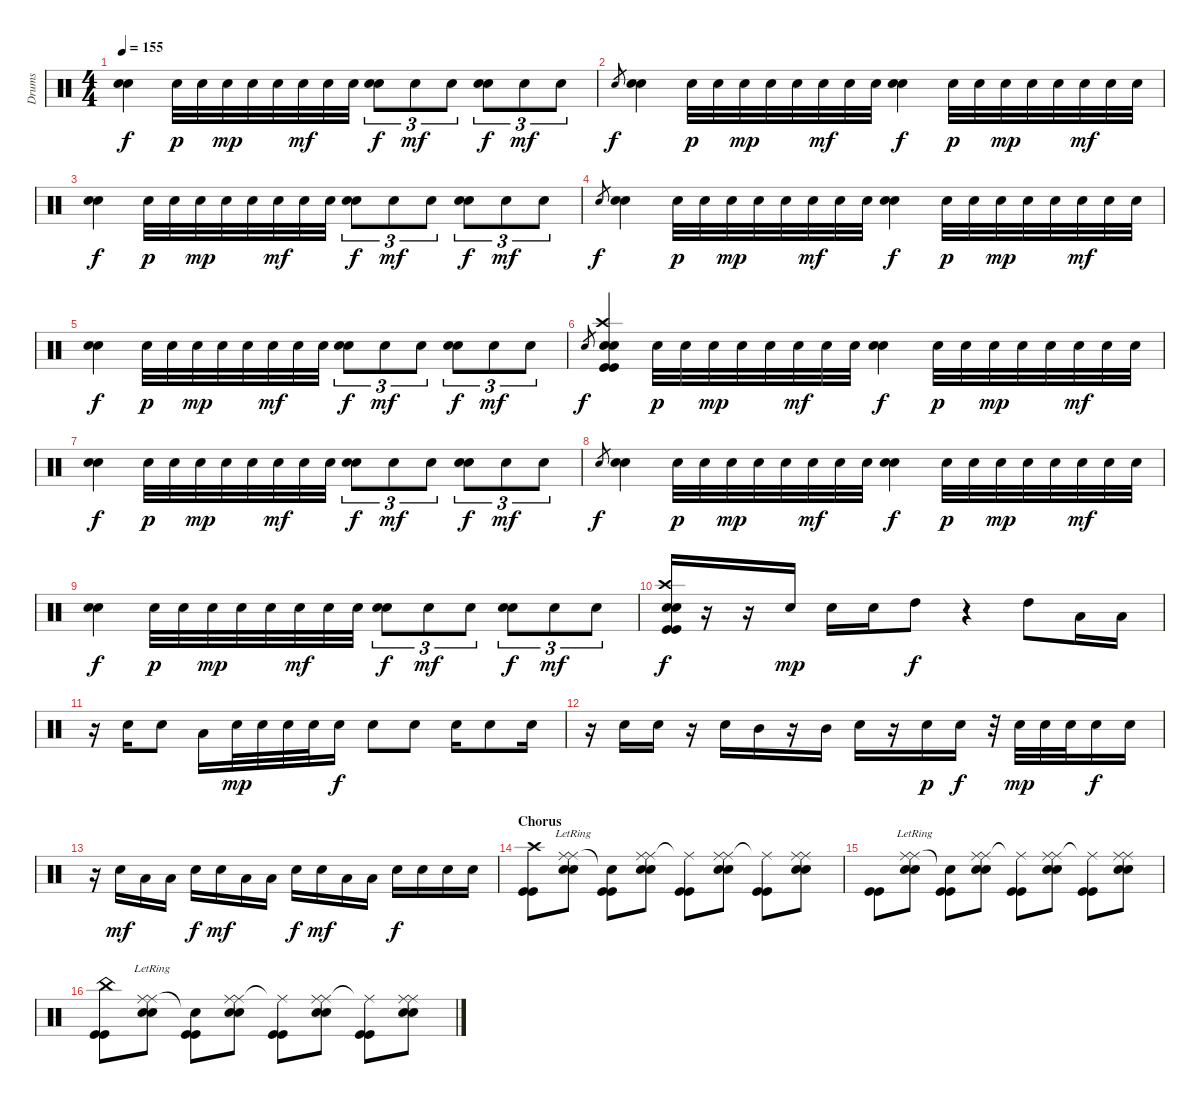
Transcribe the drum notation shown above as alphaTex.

\track ("Drums" "Drums") {instrument percussion}
\staff {score}
\articulation defaults
\ts (4 4)
\tempo 155
\clef neutral
\ks c
("Snare (hit) 2" "Snare (hit) 2").4{dy f} "Snare (hit) 2".32{dy p} "Snare (hit) 2".32 "Snare (hit) 2".32{dy mp} "Snare (hit) 2".32 "Snare (hit) 2".32 "Snare (hit) 2".32{dy mf} "Snare (hit) 2".32 "Snare (hit) 2".32 ("Snare (hit) 2" "Snare (hit) 2").8{tu (3 2) dy f} "Snare (hit) 2".8{tu (3 2) dy mf} "Snare (hit) 2".8{tu (3 2)} ("Snare (hit) 2" "Snare (hit) 2").8{tu (3 2) dy f} "Snare (hit) 2".8{tu (3 2) dy mf} "Snare (hit) 2".8{tu (3 2)} |
"Snare (hit) 2".8{gr dy f} ("Snare (hit) 2" "Snare (hit) 2").4 "Snare (hit) 2".32{dy p} "Snare (hit) 2".32 "Snare (hit) 2".32{dy mp} "Snare (hit) 2".32 "Snare (hit) 2".32 "Snare (hit) 2".32{dy mf} "Snare (hit) 2".32 "Snare (hit) 2".32 ("Snare (hit) 2" "Snare (hit) 2").4{dy f} "Snare (hit) 2".32{dy p} "Snare (hit) 2".32 "Snare (hit) 2".32{dy mp} "Snare (hit) 2".32 "Snare (hit) 2".32 "Snare (hit) 2".32{dy mf} "Snare (hit) 2".32 "Snare (hit) 2".32 |
("Snare (hit) 2" "Snare (hit) 2").4{dy f} "Snare (hit) 2".32{dy p} "Snare (hit) 2".32 "Snare (hit) 2".32{dy mp} "Snare (hit) 2".32 "Snare (hit) 2".32 "Snare (hit) 2".32{dy mf} "Snare (hit) 2".32 "Snare (hit) 2".32 ("Snare (hit) 2" "Snare (hit) 2").8{tu (3 2) dy f} "Snare (hit) 2".8{tu (3 2) dy mf} "Snare (hit) 2".8{tu (3 2)} ("Snare (hit) 2" "Snare (hit) 2").8{tu (3 2) dy f} "Snare (hit) 2".8{tu (3 2) dy mf} "Snare (hit) 2".8{tu (3 2)} |
"Snare (hit) 2".8{gr dy f} ("Snare (hit) 2" "Snare (hit) 2").4 "Snare (hit) 2".32{dy p} "Snare (hit) 2".32 "Snare (hit) 2".32{dy mp} "Snare (hit) 2".32 "Snare (hit) 2".32 "Snare (hit) 2".32{dy mf} "Snare (hit) 2".32 "Snare (hit) 2".32 ("Snare (hit) 2" "Snare (hit) 2").4{dy f} "Snare (hit) 2".32{dy p} "Snare (hit) 2".32 "Snare (hit) 2".32{dy mp} "Snare (hit) 2".32 "Snare (hit) 2".32 "Snare (hit) 2".32{dy mf} "Snare (hit) 2".32 "Snare (hit) 2".32 |
("Snare (hit) 2" "Snare (hit) 2").4{dy f} "Snare (hit) 2".32{dy p} "Snare (hit) 2".32 "Snare (hit) 2".32{dy mp} "Snare (hit) 2".32 "Snare (hit) 2".32 "Snare (hit) 2".32{dy mf} "Snare (hit) 2".32 "Snare (hit) 2".32 ("Snare (hit) 2" "Snare (hit) 2").8{tu (3 2) dy f} "Snare (hit) 2".8{tu (3 2) dy mf} "Snare (hit) 2".8{tu (3 2)} ("Snare (hit) 2" "Snare (hit) 2").8{tu (3 2) dy f} "Snare (hit) 2".8{tu (3 2) dy mf} "Snare (hit) 2".8{tu (3 2)} |
"Snare (hit) 2".8{gr dy f} ("Crash high (hit)" "Snare (hit) 2" "Snare (hit) 2" "Kick (hit)" "Kick (hit)").4{volume 12} "Snare (hit) 2".32{dy p volume 9} "Snare (hit) 2".32 "Snare (hit) 2".32{dy mp} "Snare (hit) 2".32 "Snare (hit) 2".32 "Snare (hit) 2".32{dy mf} "Snare (hit) 2".32 "Snare (hit) 2".32 ("Snare (hit) 2" "Snare (hit) 2").4{dy f} "Snare (hit) 2".32{dy p} "Snare (hit) 2".32 "Snare (hit) 2".32{dy mp} "Snare (hit) 2".32 "Snare (hit) 2".32 "Snare (hit) 2".32{dy mf} "Snare (hit) 2".32 "Snare (hit) 2".32 |
("Snare (hit) 2" "Snare (hit) 2").4{dy f} "Snare (hit) 2".32{dy p} "Snare (hit) 2".32 "Snare (hit) 2".32{dy mp} "Snare (hit) 2".32 "Snare (hit) 2".32 "Snare (hit) 2".32{dy mf} "Snare (hit) 2".32 "Snare (hit) 2".32 ("Snare (hit) 2" "Snare (hit) 2").8{tu (3 2) dy f} "Snare (hit) 2".8{tu (3 2) dy mf} "Snare (hit) 2".8{tu (3 2)} ("Snare (hit) 2" "Snare (hit) 2").8{tu (3 2) dy f} "Snare (hit) 2".8{tu (3 2) dy mf} "Snare (hit) 2".8{tu (3 2)} |
"Snare (hit) 2".8{gr dy f} ("Snare (hit) 2" "Snare (hit) 2").4 "Snare (hit) 2".32{dy p} "Snare (hit) 2".32 "Snare (hit) 2".32{dy mp} "Snare (hit) 2".32 "Snare (hit) 2".32 "Snare (hit) 2".32{dy mf} "Snare (hit) 2".32 "Snare (hit) 2".32 ("Snare (hit) 2" "Snare (hit) 2").4{dy f} "Snare (hit) 2".32{dy p} "Snare (hit) 2".32 "Snare (hit) 2".32{dy mp} "Snare (hit) 2".32 "Snare (hit) 2".32 "Snare (hit) 2".32{dy mf} "Snare (hit) 2".32 "Snare (hit) 2".32 |
("Snare (hit) 2" "Snare (hit) 2").4{dy f volume 11} "Snare (hit) 2".32{dy p} "Snare (hit) 2".32 "Snare (hit) 2".32{dy mp} "Snare (hit) 2".32 "Snare (hit) 2".32 "Snare (hit) 2".32{dy mf} "Snare (hit) 2".32 "Snare (hit) 2".32 ("Snare (hit) 2" "Snare (hit) 2").8{tu (3 2) dy f} "Snare (hit) 2".8{tu (3 2) dy mf} "Snare (hit) 2".8{tu (3 2)} ("Snare (hit) 2" "Snare (hit) 2").8{tu (3 2) dy f} "Snare (hit) 2".8{tu (3 2) dy mf} "Snare (hit) 2".8{tu (3 2)} |
("Crash high (hit)" "Snare (hit) 2" "Snare (hit) 2" "Kick (hit)" "Kick (hit)").16{dy f volume 12} r.16{volume 13} r.16 "Snare (hit) 2".16{dy mp} "Snare (hit) 2".16 "Snare (hit) 2".16 "High Tom (hit)".8{dy f} r.4 "High Tom (hit)".8 "Low Tom (hit)".16 "Low Tom (hit)".16 |
r.16 "Snare (hit) 2".16 "Snare (hit) 2".8 "Low Tom (hit)".16 "Snare (hit) 2".32{dy mp} "Snare (hit) 2".32 "Snare (hit) 2".32 "Snare (hit) 2".32 "Snare (hit) 2".16{dy f} "Snare (hit) 2".8 "Snare (hit) 2".8 "Snare (hit) 2".16 "Snare (hit) 2".8 "Snare (hit) 2".16 |
r.16{volume 15} "Snare (hit) 2".16 "Snare (hit) 2".16 r.16 "Snare (hit) 2".16 "Mid Tom (hit)".16 r.16 "Mid Tom (hit)".16 "Snare (hit) 2".16 r.16 "Snare (hit) 2".16{dy p} "Snare (hit) 2".16{dy f} r.32 "Snare (hit) 2".32{dy mp} "Snare (hit) 2".32 "Snare (hit) 2".32 "Snare (hit) 2".16{dy f} "Snare (hit) 2".16 |
r.16 "Snare (hit) 2".16{dy mf} "Low Tom (hit)".16 "Low Tom (hit)".16 "Snare (hit) 2".16{dy f} "Snare (hit) 2".16{dy mf} "Low Tom (hit)".16 "Low Tom (hit)".16 "Snare (hit) 2".16{dy f} "Snare (hit) 2".16{dy mf} "Low Tom (hit)".16 "Low Tom (hit)".16 "Snare (hit) 2".16{dy f} "Snare (hit) 2".16 "Snare (hit) 2".16 "Snare (hit) 2".16 |
\section ("" "Chorus")
("Crash high (hit)" "Kick (hit)" "Kick (hit)").8{volume 12} ("Ride (middle)"{lr} "Snare (hit) 2" "Snare (hit) 2" "Ride (middle)").8 ("Snare (hit)"{t} "Kick (hit)" "Kick (hit)").8 ("Ride (middle)" "Snare (hit) 2" "Snare (hit) 2" "Ride (middle)").8 ("Ride (middle)"{t} "Kick (hit)" "Kick (hit)").8 ("Ride (middle)" "Snare (hit) 2" "Snare (hit) 2" "Ride (middle)").8 ("Ride (middle)"{t} "Kick (hit)" "Kick (hit)").8 ("Ride (middle)" "Snare (hit) 2" "Snare (hit) 2" "Ride (middle)").8 |
("Kick (hit)" "Kick (hit)").8 ("Ride (middle)"{lr} "Snare (hit) 2" "Snare (hit) 2" "Ride (middle)").8 ("Snare (hit)"{t} "Kick (hit)" "Kick (hit)").8 ("Ride (middle)" "Snare (hit) 2" "Snare (hit) 2" "Ride (middle)").8 ("Ride (middle)"{t} "Kick (hit)" "Kick (hit)").8 ("Ride (middle)" "Snare (hit) 2" "Snare (hit) 2" "Ride (middle)").8 ("Ride (middle)"{t} "Kick (hit)" "Kick (hit)").8 ("Ride (middle)" "Snare (hit) 2" "Snare (hit) 2" "Ride (middle)").8 |
("China (hit)" "Kick (hit)" "Kick (hit)").8 ("Ride (middle)"{lr} "Snare (hit) 2" "Snare (hit) 2" "Ride (middle)").8 ("Snare (hit)"{t} "Kick (hit)" "Kick (hit)").8 ("Ride (middle)" "Snare (hit) 2" "Snare (hit) 2" "Ride (middle)").8 ("Ride (middle)"{t} "Kick (hit)" "Kick (hit)").8 ("Ride (middle)" "Snare (hit) 2" "Snare (hit) 2" "Ride (middle)").8 ("Ride (middle)"{t} "Kick (hit)" "Kick (hit)").8 ("Ride (middle)" "Snare (hit) 2" "Snare (hit) 2" "Ride (middle)").8
